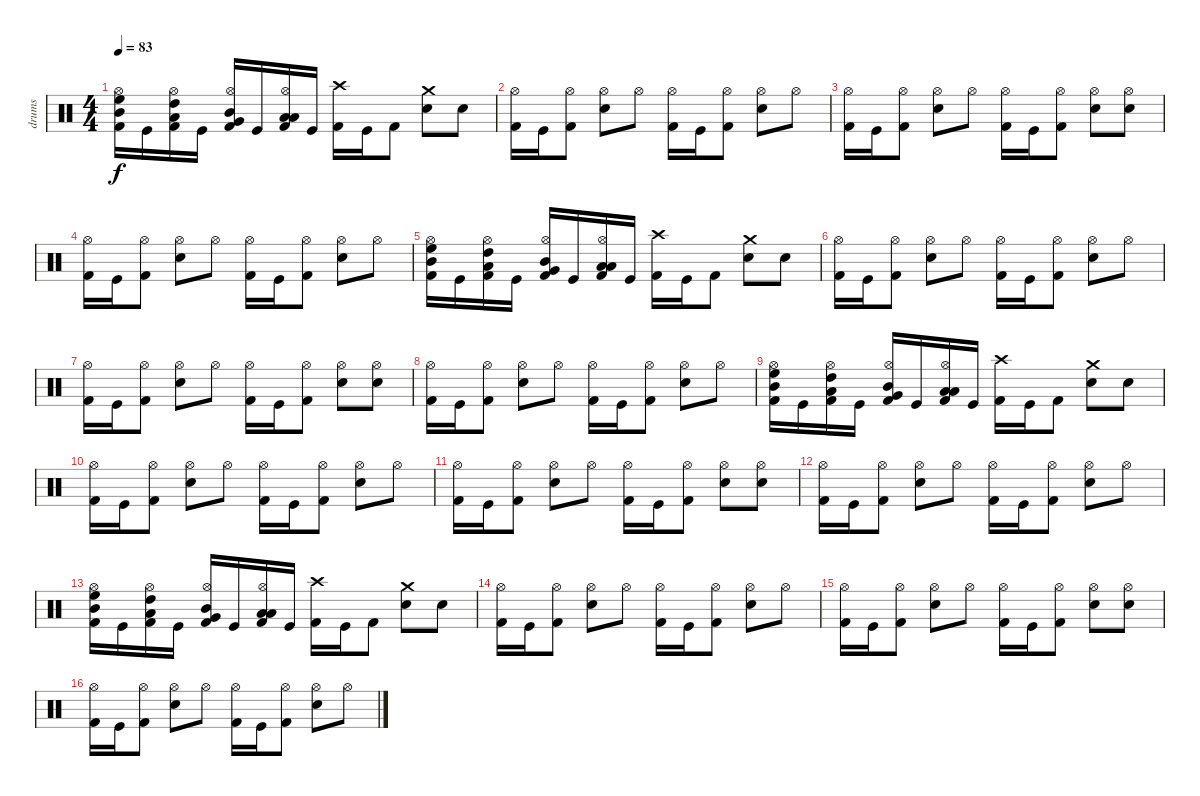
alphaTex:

\track ("drums" "drums") {instrument percussion}
\staff {score}
\articulation defaults
\ts (4 4)
\tempo 83
\clef neutral
\ks c
("Kick (hit) 2" "Mid Tom (hit)" "High Floor Tom (hit)" "Hi-Hat (open)").16{dy f} "Kick (hit)".16 ("Kick (hit) 2" "Low Tom (hit)" "High Tom (hit)" "Hi-Hat (open)").16 "Kick (hit)".16 ("Kick (hit) 2" "Very Low Tom (hit)" "Mid Tom (hit)" "Hi-Hat (open)").16 "Kick (hit)".16 ("Kick (hit) 2" "Low Floor Tom (hit)" "Low Tom (hit)" "Hi-Hat (open)").16 "Kick (hit)".16 ("Kick (hit) 2" "Crash high (hit)").16 "Kick (hit)".16 "Kick (hit) 2".8 ("Electric Snare (hit)" "Crash medium (hit)").8 "Snare (hit) 2".8 |
("Hi-Hat (open)" "Kick (hit) 2").16 "Kick (hit)".16 ("Kick (hit) 2" "Hi-Hat (open)").8 ("Electric Snare (hit)" "Hi-Hat (open)").8 "Hi-Hat (open)".8 ("Kick (hit) 2" "Hi-Hat (open)").16 "Kick (hit)".16 ("Kick (hit) 2" "Hi-Hat (open)").8 ("Electric Snare (hit)" "Hi-Hat (open)").8 "Hi-Hat (open)".8 |
("Kick (hit) 2" "Hi-Hat (open)").16 "Kick (hit)".16 ("Kick (hit) 2" "Hi-Hat (open)").8 ("Electric Snare (hit)" "Hi-Hat (open)").8 "Hi-Hat (open)".8 ("Kick (hit) 2" "Hi-Hat (open)").16 "Kick (hit)".16 ("Kick (hit) 2" "Hi-Hat (open)").8 ("Electric Snare (hit)" "Hi-Hat (open)").8 ("Snare (hit) 2" "Hi-Hat (open)").8 |
("Hi-Hat (open)" "Kick (hit) 2").16 "Kick (hit)".16 ("Kick (hit) 2" "Hi-Hat (open)").8 ("Electric Snare (hit)" "Hi-Hat (open)").8 "Hi-Hat (open)".8 ("Kick (hit) 2" "Hi-Hat (open)").16 "Kick (hit)".16 ("Kick (hit) 2" "Hi-Hat (open)").8 ("Electric Snare (hit)" "Hi-Hat (open)").8 "Hi-Hat (open)".8 |
("Kick (hit) 2" "Mid Tom (hit)" "High Floor Tom (hit)" "Hi-Hat (open)").16 "Kick (hit)".16 ("Kick (hit) 2" "Low Tom (hit)" "High Tom (hit)" "Hi-Hat (open)").16 "Kick (hit)".16 ("Kick (hit) 2" "Very Low Tom (hit)" "Mid Tom (hit)" "Hi-Hat (open)").16 "Kick (hit)".16 ("Kick (hit) 2" "Low Floor Tom (hit)" "Low Tom (hit)" "Hi-Hat (open)").16 "Kick (hit)".16 ("Kick (hit) 2" "Crash high (hit)").16 "Kick (hit)".16 "Kick (hit) 2".8 ("Electric Snare (hit)" "Crash medium (hit)").8 "Snare (hit) 2".8 |
("Hi-Hat (open)" "Kick (hit) 2").16 "Kick (hit)".16 ("Kick (hit) 2" "Hi-Hat (open)").8 ("Electric Snare (hit)" "Hi-Hat (open)").8 "Hi-Hat (open)".8 ("Kick (hit) 2" "Hi-Hat (open)").16 "Kick (hit)".16 ("Kick (hit) 2" "Hi-Hat (open)").8 ("Electric Snare (hit)" "Hi-Hat (open)").8 "Hi-Hat (open)".8 |
("Kick (hit) 2" "Hi-Hat (open)").16 "Kick (hit)".16 ("Kick (hit) 2" "Hi-Hat (open)").8 ("Electric Snare (hit)" "Hi-Hat (open)").8 "Hi-Hat (open)".8 ("Kick (hit) 2" "Hi-Hat (open)").16 "Kick (hit)".16 ("Kick (hit) 2" "Hi-Hat (open)").8 ("Electric Snare (hit)" "Hi-Hat (open)").8 ("Snare (hit) 2" "Hi-Hat (open)").8 |
("Hi-Hat (open)" "Kick (hit) 2").16 "Kick (hit)".16 ("Kick (hit) 2" "Hi-Hat (open)").8 ("Electric Snare (hit)" "Hi-Hat (open)").8 "Hi-Hat (open)".8 ("Kick (hit) 2" "Hi-Hat (open)").16 "Kick (hit)".16 ("Kick (hit) 2" "Hi-Hat (open)").8 ("Electric Snare (hit)" "Hi-Hat (open)").8 "Hi-Hat (open)".8 |
("Kick (hit) 2" "Mid Tom (hit)" "High Floor Tom (hit)" "Hi-Hat (open)").16 "Kick (hit)".16 ("Kick (hit) 2" "Low Tom (hit)" "High Tom (hit)" "Hi-Hat (open)").16 "Kick (hit)".16 ("Kick (hit) 2" "Very Low Tom (hit)" "Mid Tom (hit)" "Hi-Hat (open)").16 "Kick (hit)".16 ("Kick (hit) 2" "Low Floor Tom (hit)" "Low Tom (hit)" "Hi-Hat (open)").16 "Kick (hit)".16 ("Kick (hit) 2" "Crash high (hit)").16 "Kick (hit)".16 "Kick (hit) 2".8 ("Electric Snare (hit)" "Crash medium (hit)").8 "Snare (hit) 2".8 |
("Hi-Hat (open)" "Kick (hit) 2").16 "Kick (hit)".16 ("Kick (hit) 2" "Hi-Hat (open)").8 ("Electric Snare (hit)" "Hi-Hat (open)").8 "Hi-Hat (open)".8 ("Kick (hit) 2" "Hi-Hat (open)").16 "Kick (hit)".16 ("Kick (hit) 2" "Hi-Hat (open)").8 ("Electric Snare (hit)" "Hi-Hat (open)").8 "Hi-Hat (open)".8 |
("Kick (hit) 2" "Hi-Hat (open)").16 "Kick (hit)".16 ("Kick (hit) 2" "Hi-Hat (open)").8 ("Electric Snare (hit)" "Hi-Hat (open)").8 "Hi-Hat (open)".8 ("Kick (hit) 2" "Hi-Hat (open)").16 "Kick (hit)".16 ("Kick (hit) 2" "Hi-Hat (open)").8 ("Electric Snare (hit)" "Hi-Hat (open)").8 ("Snare (hit) 2" "Hi-Hat (open)").8 |
("Hi-Hat (open)" "Kick (hit) 2").16 "Kick (hit)".16 ("Kick (hit) 2" "Hi-Hat (open)").8 ("Electric Snare (hit)" "Hi-Hat (open)").8 "Hi-Hat (open)".8 ("Kick (hit) 2" "Hi-Hat (open)").16 "Kick (hit)".16 ("Kick (hit) 2" "Hi-Hat (open)").8 ("Electric Snare (hit)" "Hi-Hat (open)").8 "Hi-Hat (open)".8 |
("Kick (hit) 2" "Mid Tom (hit)" "High Floor Tom (hit)" "Hi-Hat (open)").16 "Kick (hit)".16 ("Kick (hit) 2" "Low Tom (hit)" "High Tom (hit)" "Hi-Hat (open)").16 "Kick (hit)".16 ("Kick (hit) 2" "Very Low Tom (hit)" "Mid Tom (hit)" "Hi-Hat (open)").16 "Kick (hit)".16 ("Kick (hit) 2" "Low Floor Tom (hit)" "Low Tom (hit)" "Hi-Hat (open)").16 "Kick (hit)".16 ("Kick (hit) 2" "Crash high (hit)").16 "Kick (hit)".16 "Kick (hit) 2".8 ("Electric Snare (hit)" "Crash medium (hit)").8 "Snare (hit) 2".8 |
("Hi-Hat (open)" "Kick (hit) 2").16 "Kick (hit)".16 ("Kick (hit) 2" "Hi-Hat (open)").8 ("Electric Snare (hit)" "Hi-Hat (open)").8 "Hi-Hat (open)".8 ("Kick (hit) 2" "Hi-Hat (open)").16 "Kick (hit)".16 ("Kick (hit) 2" "Hi-Hat (open)").8 ("Electric Snare (hit)" "Hi-Hat (open)").8 "Hi-Hat (open)".8 |
("Kick (hit) 2" "Hi-Hat (open)").16 "Kick (hit)".16 ("Kick (hit) 2" "Hi-Hat (open)").8 ("Electric Snare (hit)" "Hi-Hat (open)").8 "Hi-Hat (open)".8 ("Kick (hit) 2" "Hi-Hat (open)").16 "Kick (hit)".16 ("Kick (hit) 2" "Hi-Hat (open)").8 ("Electric Snare (hit)" "Hi-Hat (open)").8 ("Snare (hit) 2" "Hi-Hat (open)").8 |
("Hi-Hat (open)" "Kick (hit) 2").16 "Kick (hit)".16 ("Kick (hit) 2" "Hi-Hat (open)").8 ("Electric Snare (hit)" "Hi-Hat (open)").8 "Hi-Hat (open)".8 ("Kick (hit) 2" "Hi-Hat (open)").16 "Kick (hit)".16 ("Kick (hit) 2" "Hi-Hat (open)").8 ("Electric Snare (hit)" "Hi-Hat (open)").8 "Hi-Hat (open)".8
